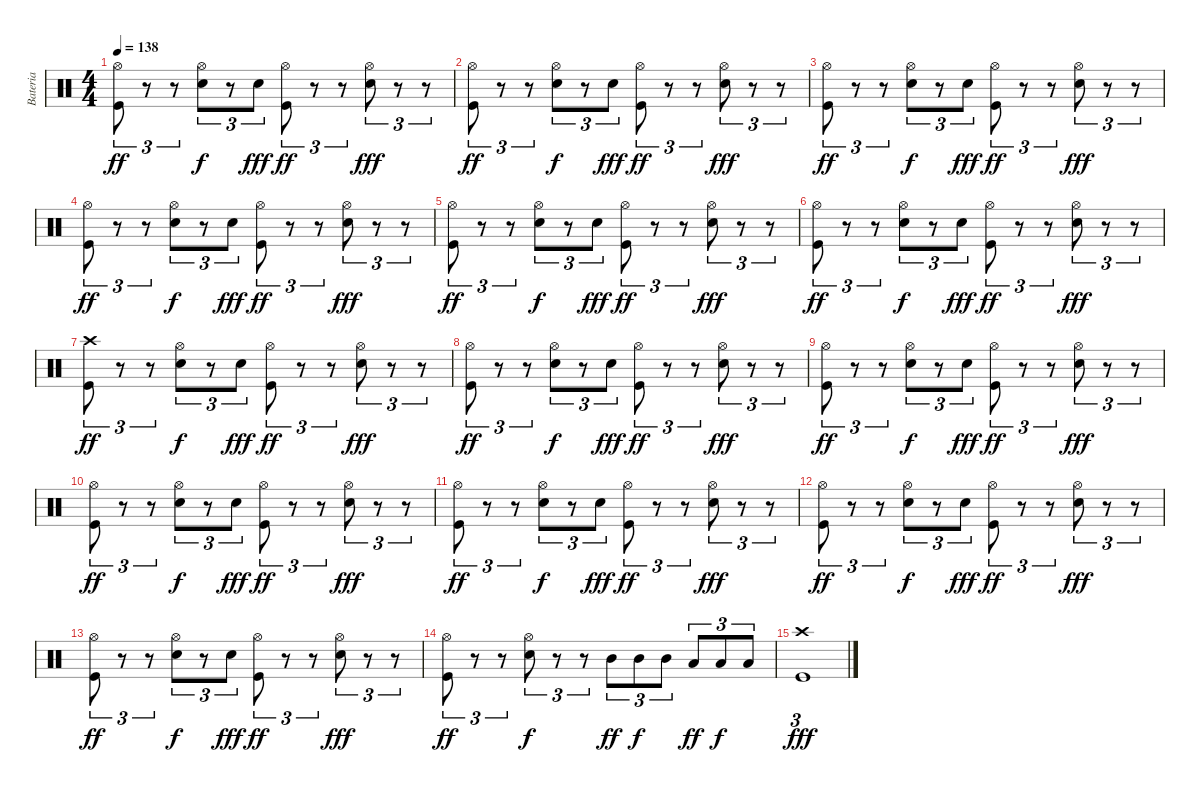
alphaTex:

\track ("Bateria" "Bateria") {instrument percussion}
\staff {score}
\articulation defaults
\ts (4 4)
\tempo 138
\clef neutral
\ks c
("Kick (hit)" "Hi-Hat (open)").8{tu (3 2) dy ff} r.8{tu (3 2)} r.8{tu (3 2)} ("Electric Snare (hit)" "Hi-Hat (open)").8{tu (3 2) dy f} r.8{tu (3 2)} "Electric Snare (hit)".8{tu (3 2) dy fff} ("Kick (hit)" "Hi-Hat (open)").8{tu (3 2) dy ff} r.8{tu (3 2)} r.8{tu (3 2)} ("Electric Snare (hit)" "Hi-Hat (open)").8{tu (3 2) dy fff} r.8{tu (3 2)} r.8{tu (3 2)} |
("Kick (hit)" "Hi-Hat (open)").8{tu (3 2) dy ff} r.8{tu (3 2)} r.8{tu (3 2)} ("Electric Snare (hit)" "Hi-Hat (open)").8{tu (3 2) dy f} r.8{tu (3 2)} "Electric Snare (hit)".8{tu (3 2) dy fff} ("Kick (hit)" "Hi-Hat (open)").8{tu (3 2) dy ff} r.8{tu (3 2)} r.8{tu (3 2)} ("Electric Snare (hit)" "Hi-Hat (open)").8{tu (3 2) dy fff} r.8{tu (3 2)} r.8{tu (3 2)} |
("Kick (hit)" "Hi-Hat (open)").8{tu (3 2) dy ff} r.8{tu (3 2)} r.8{tu (3 2)} ("Electric Snare (hit)" "Hi-Hat (open)").8{tu (3 2) dy f} r.8{tu (3 2)} "Electric Snare (hit)".8{tu (3 2) dy fff} ("Kick (hit)" "Hi-Hat (open)").8{tu (3 2) dy ff} r.8{tu (3 2)} r.8{tu (3 2)} ("Electric Snare (hit)" "Hi-Hat (open)").8{tu (3 2) dy fff} r.8{tu (3 2)} r.8{tu (3 2)} |
("Kick (hit)" "Hi-Hat (open)").8{tu (3 2) dy ff} r.8{tu (3 2)} r.8{tu (3 2)} ("Electric Snare (hit)" "Hi-Hat (open)").8{tu (3 2) dy f} r.8{tu (3 2)} "Electric Snare (hit)".8{tu (3 2) dy fff} ("Kick (hit)" "Hi-Hat (open)").8{tu (3 2) dy ff} r.8{tu (3 2)} r.8{tu (3 2)} ("Electric Snare (hit)" "Hi-Hat (open)").8{tu (3 2) dy fff} r.8{tu (3 2)} r.8{tu (3 2)} |
("Kick (hit)" "Hi-Hat (open)").8{tu (3 2) dy ff} r.8{tu (3 2)} r.8{tu (3 2)} ("Electric Snare (hit)" "Hi-Hat (open)").8{tu (3 2) dy f} r.8{tu (3 2)} "Electric Snare (hit)".8{tu (3 2) dy fff} ("Kick (hit)" "Hi-Hat (open)").8{tu (3 2) dy ff} r.8{tu (3 2)} r.8{tu (3 2)} ("Electric Snare (hit)" "Hi-Hat (open)").8{tu (3 2) dy fff} r.8{tu (3 2)} r.8{tu (3 2)} |
("Kick (hit)" "Hi-Hat (open)").8{tu (3 2) dy ff} r.8{tu (3 2)} r.8{tu (3 2)} ("Electric Snare (hit)" "Hi-Hat (open)").8{tu (3 2) dy f} r.8{tu (3 2)} "Electric Snare (hit)".8{tu (3 2) dy fff} ("Kick (hit)" "Hi-Hat (open)").8{tu (3 2) dy ff} r.8{tu (3 2)} r.8{tu (3 2)} ("Electric Snare (hit)" "Hi-Hat (open)").8{tu (3 2) dy fff} r.8{tu (3 2)} r.8{tu (3 2)} |
("Kick (hit)" "Crash high (hit)").8{tu (3 2) dy ff} r.8{tu (3 2)} r.8{tu (3 2)} ("Electric Snare (hit)" "Hi-Hat (open)").8{tu (3 2) dy f} r.8{tu (3 2)} "Electric Snare (hit)".8{tu (3 2) dy fff} ("Kick (hit)" "Hi-Hat (open)").8{tu (3 2) dy ff} r.8{tu (3 2)} r.8{tu (3 2)} ("Electric Snare (hit)" "Hi-Hat (open)").8{tu (3 2) dy fff} r.8{tu (3 2)} r.8{tu (3 2)} |
("Kick (hit)" "Hi-Hat (open)").8{tu (3 2) dy ff} r.8{tu (3 2)} r.8{tu (3 2)} ("Electric Snare (hit)" "Hi-Hat (open)").8{tu (3 2) dy f} r.8{tu (3 2)} "Electric Snare (hit)".8{tu (3 2) dy fff} ("Kick (hit)" "Hi-Hat (open)").8{tu (3 2) dy ff} r.8{tu (3 2)} r.8{tu (3 2)} ("Electric Snare (hit)" "Hi-Hat (open)").8{tu (3 2) dy fff} r.8{tu (3 2)} r.8{tu (3 2)} |
("Kick (hit)" "Hi-Hat (open)").8{tu (3 2) dy ff} r.8{tu (3 2)} r.8{tu (3 2)} ("Electric Snare (hit)" "Hi-Hat (open)").8{tu (3 2) dy f} r.8{tu (3 2)} "Electric Snare (hit)".8{tu (3 2) dy fff} ("Kick (hit)" "Hi-Hat (open)").8{tu (3 2) dy ff} r.8{tu (3 2)} r.8{tu (3 2)} ("Electric Snare (hit)" "Hi-Hat (open)").8{tu (3 2) dy fff} r.8{tu (3 2)} r.8{tu (3 2)} |
("Kick (hit)" "Hi-Hat (open)").8{tu (3 2) dy ff} r.8{tu (3 2)} r.8{tu (3 2)} ("Electric Snare (hit)" "Hi-Hat (open)").8{tu (3 2) dy f} r.8{tu (3 2)} "Electric Snare (hit)".8{tu (3 2) dy fff} ("Kick (hit)" "Hi-Hat (open)").8{tu (3 2) dy ff} r.8{tu (3 2)} r.8{tu (3 2)} ("Electric Snare (hit)" "Hi-Hat (open)").8{tu (3 2) dy fff} r.8{tu (3 2)} r.8{tu (3 2)} |
("Kick (hit)" "Hi-Hat (open)").8{tu (3 2) dy ff} r.8{tu (3 2)} r.8{tu (3 2)} ("Electric Snare (hit)" "Hi-Hat (open)").8{tu (3 2) dy f} r.8{tu (3 2)} "Electric Snare (hit)".8{tu (3 2) dy fff} ("Kick (hit)" "Hi-Hat (open)").8{tu (3 2) dy ff} r.8{tu (3 2)} r.8{tu (3 2)} ("Electric Snare (hit)" "Hi-Hat (open)").8{tu (3 2) dy fff} r.8{tu (3 2)} r.8{tu (3 2)} |
("Kick (hit)" "Hi-Hat (open)").8{tu (3 2) dy ff} r.8{tu (3 2)} r.8{tu (3 2)} ("Electric Snare (hit)" "Hi-Hat (open)").8{tu (3 2) dy f} r.8{tu (3 2)} "Electric Snare (hit)".8{tu (3 2) dy fff} ("Kick (hit)" "Hi-Hat (open)").8{tu (3 2) dy ff} r.8{tu (3 2)} r.8{tu (3 2)} ("Electric Snare (hit)" "Hi-Hat (open)").8{tu (3 2) dy fff} r.8{tu (3 2)} r.8{tu (3 2)} |
("Kick (hit)" "Hi-Hat (open)").8{tu (3 2) dy ff} r.8{tu (3 2)} r.8{tu (3 2)} ("Electric Snare (hit)" "Hi-Hat (open)").8{tu (3 2) dy f} r.8{tu (3 2)} "Electric Snare (hit)".8{tu (3 2) dy fff} ("Kick (hit)" "Hi-Hat (open)").8{tu (3 2) dy ff} r.8{tu (3 2)} r.8{tu (3 2)} ("Electric Snare (hit)" "Hi-Hat (open)").8{tu (3 2) dy fff} r.8{tu (3 2)} r.8{tu (3 2)} |
("Kick (hit)" "Hi-Hat (open)").8{tu (3 2) dy ff} r.8{tu (3 2)} r.8{tu (3 2)} ("Electric Snare (hit)" "Hi-Hat (open)").8{tu (3 2) dy f} r.8{tu (3 2)} r.8{tu (3 2)} "Mid Tom (hit)".8{tu (3 2) dy ff} "Mid Tom (hit)".8{tu (3 2) dy f} "Mid Tom (hit)".8{tu (3 2)} "Low Tom (hit)".8{tu (3 2) dy ff} "Low Tom (hit)".8{tu (3 2) dy f} "Low Tom (hit)".8{tu (3 2)} |
("Kick (hit)" "Crash high (hit)").1{tu (3 2) dy fff}
